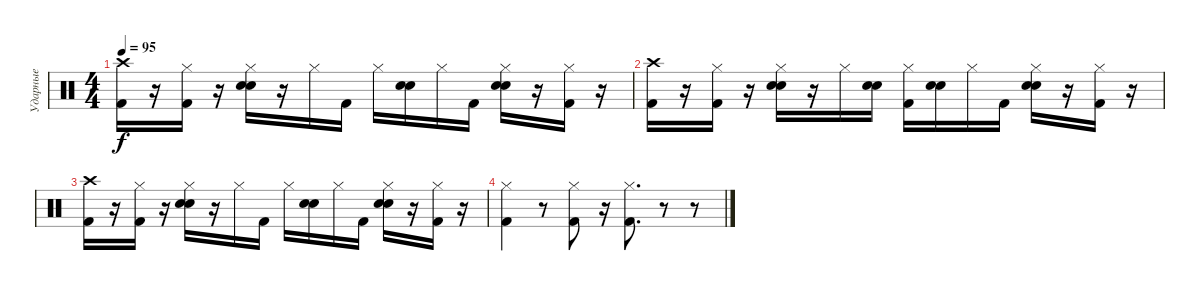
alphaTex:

\track ("Ударные" "Ударные") {instrument percussion}
\staff {score}
\articulation defaults
\ts (4 4)
\tempo 95
\clef neutral
\ks c
("Crash high (hit)" "Kick (hit) 2").16{dy f} r.16 ("Hi-Hat (closed)" "Kick (hit) 2").16 r.16 ("Hi-Hat (closed)" "Snare (hit) 2" "Electric Snare (hit)").16 r.16 "Hi-Hat (closed)".16 "Kick (hit) 2".16 "Hi-Hat (closed)".16 ("Snare (hit) 2" "Electric Snare (hit)").16 "Hi-Hat (closed)".16 "Kick (hit) 2".16 ("Hi-Hat (closed)" "Snare (hit) 2" "Electric Snare (hit)").16 r.16 ("Hi-Hat (closed)" "Kick (hit) 2").16 r.16 |
("Crash high (hit)" "Kick (hit) 2").16 r.16 ("Hi-Hat (closed)" "Kick (hit) 2").16 r.16 ("Hi-Hat (closed)" "Snare (hit) 2" "Electric Snare (hit)").16 r.16 "Hi-Hat (closed)".16 ("Snare (hit) 2" "Electric Snare (hit)").16 ("Hi-Hat (closed)" "Kick (hit) 2").16 ("Snare (hit) 2" "Electric Snare (hit)").16 "Hi-Hat (closed)".16 "Kick (hit) 2".16 ("Hi-Hat (closed)" "Snare (hit) 2" "Electric Snare (hit)").16 r.16 ("Hi-Hat (closed)" "Kick (hit) 2").16 r.16 |
("Crash high (hit)" "Kick (hit) 2").16 r.16 ("Hi-Hat (closed)" "Kick (hit) 2").16 r.16 ("Hi-Hat (closed)" "Snare (hit) 2" "Electric Snare (hit)").16 r.16 "Hi-Hat (closed)".16 "Kick (hit) 2".16 "Hi-Hat (closed)".16 ("Snare (hit) 2" "Electric Snare (hit)").16 "Hi-Hat (closed)".16 "Kick (hit) 2".16 ("Hi-Hat (closed)" "Snare (hit) 2" "Electric Snare (hit)").16 r.16 ("Hi-Hat (closed)" "Kick (hit) 2").16 r.16 |
("Hi-Hat (closed)" "Kick (hit) 2").4 r.8 ("Hi-Hat (closed)" "Kick (hit) 2").8 r.16 ("Hi-Hat (closed)" "Kick (hit) 2").8{d} r.8 r.8
